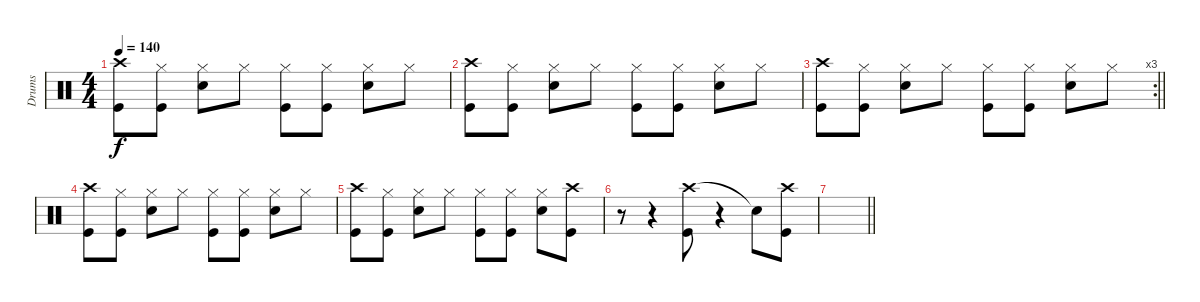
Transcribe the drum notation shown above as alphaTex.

\track ("Drums" "Drums") {instrument percussion}
\staff {score}
\articulation defaults
\ts (4 4)
\tempo 140
\clef neutral
\ks c
("Crash high (hit)" "Kick (hit)").8{dy f} ("Hi-Hat (closed)" "Kick (hit)").8 ("Snare (hit) 2" "Hi-Hat (closed)").8 "Hi-Hat (closed)".8 ("Hi-Hat (closed)" "Kick (hit)").8 ("Hi-Hat (closed)" "Kick (hit)").8 ("Snare (hit) 2" "Hi-Hat (closed)").8 "Hi-Hat (closed)".8 |
("Crash high (hit)" "Kick (hit)").8 ("Hi-Hat (closed)" "Kick (hit)").8 ("Snare (hit) 2" "Hi-Hat (closed)").8 "Hi-Hat (closed)".8 ("Hi-Hat (closed)" "Kick (hit)").8 ("Hi-Hat (closed)" "Kick (hit)").8 ("Snare (hit) 2" "Hi-Hat (closed)").8 "Hi-Hat (closed)".8 |
\rc 3
\barLineRight lightlight
("Crash high (hit)" "Kick (hit)").8 ("Hi-Hat (closed)" "Kick (hit)").8 ("Snare (hit) 2" "Hi-Hat (closed)").8 "Hi-Hat (closed)".8 ("Hi-Hat (closed)" "Kick (hit)").8 ("Hi-Hat (closed)" "Kick (hit)").8 ("Snare (hit) 2" "Hi-Hat (closed)").8 "Hi-Hat (closed)".8 |
("Crash high (hit)" "Kick (hit)").8 ("Hi-Hat (closed)" "Kick (hit)").8 ("Snare (hit) 2" "Hi-Hat (closed)").8 "Hi-Hat (closed)".8 ("Hi-Hat (closed)" "Kick (hit)").8 ("Hi-Hat (closed)" "Kick (hit)").8 ("Snare (hit) 2" "Hi-Hat (closed)").8 "Hi-Hat (closed)".8 |
("Crash high (hit)" "Kick (hit)").8 ("Hi-Hat (closed)" "Kick (hit)").8 ("Snare (hit) 2" "Hi-Hat (closed)").8 "Hi-Hat (closed)".8 ("Hi-Hat (closed)" "Kick (hit)").8 ("Hi-Hat (closed)" "Kick (hit)").8 ("Snare (hit) 2" "Hi-Hat (closed)").8 ("Crash high (hit)" "Kick (hit)").8 |
r.8 r.4 ("Crash high (hit)" "Kick (hit)").8 r.4 "Snare (hit)"{t}.8 ("Crash high (hit)" "Kick (hit)").8 |
\barLineRight lightlight
